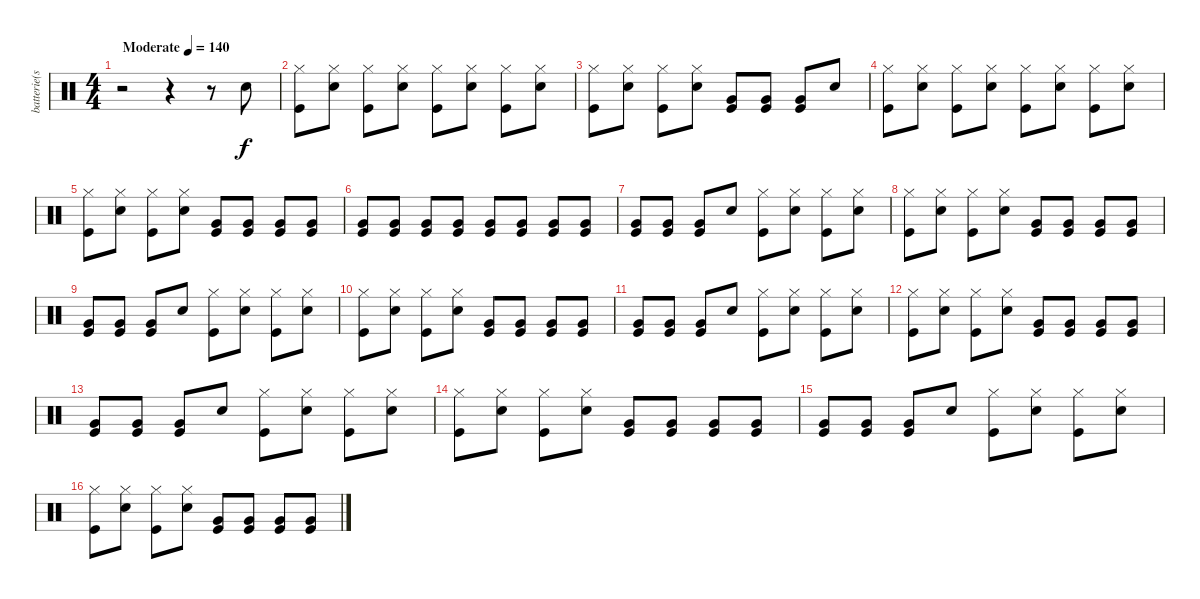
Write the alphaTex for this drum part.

\track ("batterie(steve)" "batterie(s") {instrument percussion}
\staff {score}
\articulation defaults
\ts (4 4)
\tempo (140 "Moderate")
\clef neutral
\ks c
r.2{dy f} r.4 r.8 "Snare (hit) 2".8 |
("Hi-Hat (closed)" "Kick (hit)").8 ("Hi-Hat (closed)" "Snare (hit) 2").8 ("Hi-Hat (closed)" "Kick (hit)").8 ("Hi-Hat (closed)" "Snare (hit) 2").8 ("Hi-Hat (closed)" "Kick (hit)").8 ("Hi-Hat (closed)" "Snare (hit) 2").8 ("Hi-Hat (closed)" "Kick (hit)").8 ("Hi-Hat (closed)" "Snare (hit) 2").8 |
("Hi-Hat (closed)" "Kick (hit)").8 ("Hi-Hat (closed)" "Snare (hit) 2").8 ("Hi-Hat (closed)" "Kick (hit)").8 ("Hi-Hat (closed)" "Snare (hit) 2").8 ("Very Low Tom (hit)" "Kick (hit)").8 ("Very Low Tom (hit)" "Kick (hit)").8 ("Very Low Tom (hit)" "Kick (hit)").8 "Snare (hit) 2".8 |
("Hi-Hat (closed)" "Kick (hit)").8 ("Hi-Hat (closed)" "Snare (hit) 2").8 ("Hi-Hat (closed)" "Kick (hit)").8 ("Hi-Hat (closed)" "Snare (hit) 2").8 ("Hi-Hat (closed)" "Kick (hit)").8 ("Hi-Hat (closed)" "Snare (hit) 2").8 ("Hi-Hat (closed)" "Kick (hit)").8 ("Hi-Hat (closed)" "Snare (hit) 2").8 |
("Hi-Hat (closed)" "Kick (hit)").8 ("Hi-Hat (closed)" "Snare (hit) 2").8 ("Hi-Hat (closed)" "Kick (hit)").8 ("Hi-Hat (closed)" "Snare (hit) 2").8 ("Very Low Tom (hit)" "Kick (hit)").8 ("Very Low Tom (hit)" "Kick (hit)").8 ("Very Low Tom (hit)" "Kick (hit)").8 ("Very Low Tom (hit)" "Kick (hit)").8 |
("Very Low Tom (hit)" "Kick (hit)").8 ("Very Low Tom (hit)" "Kick (hit)").8 ("Very Low Tom (hit)" "Kick (hit)").8 ("Very Low Tom (hit)" "Kick (hit)").8 ("Very Low Tom (hit)" "Kick (hit)").8 ("Very Low Tom (hit)" "Kick (hit)").8 ("Very Low Tom (hit)" "Kick (hit)").8 ("Very Low Tom (hit)" "Kick (hit)").8 |
("Very Low Tom (hit)" "Kick (hit)").8 ("Very Low Tom (hit)" "Kick (hit)").8 ("Very Low Tom (hit)" "Kick (hit)").8 "Snare (hit) 2".8 ("Hi-Hat (closed)" "Kick (hit)").8 ("Hi-Hat (closed)" "Snare (hit) 2").8 ("Hi-Hat (closed)" "Kick (hit)").8 ("Hi-Hat (closed)" "Snare (hit) 2").8 |
("Hi-Hat (closed)" "Kick (hit)").8 ("Hi-Hat (closed)" "Snare (hit) 2").8 ("Hi-Hat (closed)" "Kick (hit)").8 ("Hi-Hat (closed)" "Snare (hit) 2").8 ("Very Low Tom (hit)" "Kick (hit)").8 ("Very Low Tom (hit)" "Kick (hit)").8 ("Very Low Tom (hit)" "Kick (hit)").8 ("Very Low Tom (hit)" "Kick (hit)").8 |
("Very Low Tom (hit)" "Kick (hit)").8 ("Very Low Tom (hit)" "Kick (hit)").8 ("Very Low Tom (hit)" "Kick (hit)").8 "Snare (hit) 2".8 ("Hi-Hat (closed)" "Kick (hit)").8 ("Hi-Hat (closed)" "Snare (hit) 2").8 ("Hi-Hat (closed)" "Kick (hit)").8 ("Hi-Hat (closed)" "Snare (hit) 2").8 |
("Hi-Hat (closed)" "Kick (hit)").8 ("Hi-Hat (closed)" "Snare (hit) 2").8 ("Hi-Hat (closed)" "Kick (hit)").8 ("Hi-Hat (closed)" "Snare (hit) 2").8 ("Very Low Tom (hit)" "Kick (hit)").8 ("Very Low Tom (hit)" "Kick (hit)").8 ("Very Low Tom (hit)" "Kick (hit)").8 ("Very Low Tom (hit)" "Kick (hit)").8 |
("Very Low Tom (hit)" "Kick (hit)").8 ("Very Low Tom (hit)" "Kick (hit)").8 ("Very Low Tom (hit)" "Kick (hit)").8 "Snare (hit) 2".8 ("Hi-Hat (closed)" "Kick (hit)").8 ("Hi-Hat (closed)" "Snare (hit) 2").8 ("Hi-Hat (closed)" "Kick (hit)").8 ("Hi-Hat (closed)" "Snare (hit) 2").8 |
("Hi-Hat (closed)" "Kick (hit)").8 ("Hi-Hat (closed)" "Snare (hit) 2").8 ("Hi-Hat (closed)" "Kick (hit)").8 ("Hi-Hat (closed)" "Snare (hit) 2").8 ("Very Low Tom (hit)" "Kick (hit)").8 ("Very Low Tom (hit)" "Kick (hit)").8 ("Very Low Tom (hit)" "Kick (hit)").8 ("Very Low Tom (hit)" "Kick (hit)").8 |
("Very Low Tom (hit)" "Kick (hit)").8 ("Very Low Tom (hit)" "Kick (hit)").8 ("Very Low Tom (hit)" "Kick (hit)").8 "Snare (hit) 2".8 ("Hi-Hat (closed)" "Kick (hit)").8 ("Hi-Hat (closed)" "Snare (hit) 2").8 ("Hi-Hat (closed)" "Kick (hit)").8 ("Hi-Hat (closed)" "Snare (hit) 2").8 |
("Hi-Hat (closed)" "Kick (hit)").8 ("Hi-Hat (closed)" "Snare (hit) 2").8 ("Hi-Hat (closed)" "Kick (hit)").8 ("Hi-Hat (closed)" "Snare (hit) 2").8 ("Very Low Tom (hit)" "Kick (hit)").8 ("Very Low Tom (hit)" "Kick (hit)").8 ("Very Low Tom (hit)" "Kick (hit)").8 ("Very Low Tom (hit)" "Kick (hit)").8 |
("Very Low Tom (hit)" "Kick (hit)").8 ("Very Low Tom (hit)" "Kick (hit)").8 ("Very Low Tom (hit)" "Kick (hit)").8 "Snare (hit) 2".8 ("Hi-Hat (closed)" "Kick (hit)").8 ("Hi-Hat (closed)" "Snare (hit) 2").8 ("Hi-Hat (closed)" "Kick (hit)").8 ("Hi-Hat (closed)" "Snare (hit) 2").8 |
("Hi-Hat (closed)" "Kick (hit)").8 ("Hi-Hat (closed)" "Snare (hit) 2").8 ("Hi-Hat (closed)" "Kick (hit)").8 ("Hi-Hat (closed)" "Snare (hit) 2").8 ("Very Low Tom (hit)" "Kick (hit)").8 ("Very Low Tom (hit)" "Kick (hit)").8 ("Very Low Tom (hit)" "Kick (hit)").8 ("Very Low Tom (hit)" "Kick (hit)").8
